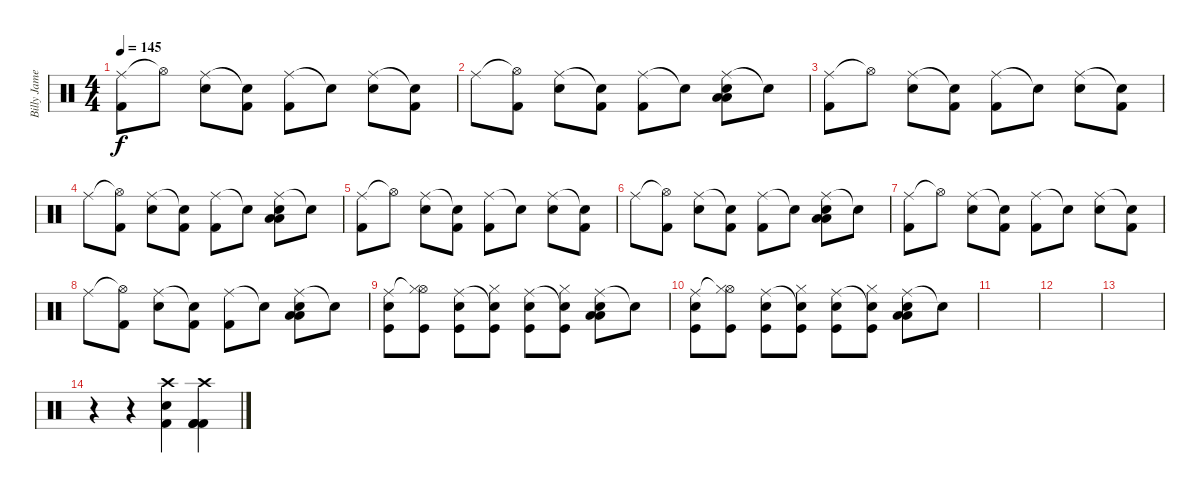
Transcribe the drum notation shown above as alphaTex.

\track ("Billy James (Drums)" "Billy Jame") {instrument percussion}
\staff {score}
\articulation defaults
\ts (4 4)
\tempo 145
\clef neutral
\ks c
("Ride (middle)" "Kick (hit) 2").8{dy f} "Hi-Hat (open)"{t}.8 ("Ride (middle)" "Snare (hit) 2").8 ("Snare (hit)"{t} "Kick (hit) 2").8 ("Ride (middle)" "Kick (hit) 2").8 "Snare (hit)"{t}.8 ("Ride (middle)" "Snare (hit) 2").8 ("Snare (hit)"{t} "Kick (hit) 2").8 |
"Ride (middle)".8 ("Hi-Hat (open)"{t} "Kick (hit) 2").8 ("Ride (middle)" "Snare (hit) 2").8 ("Snare (hit)"{t} "Kick (hit) 2").8 ("Ride (middle)" "Kick (hit) 2").8 "Snare (hit)"{t}.8 ("Ride (middle)" "Low Floor Tom (hit)" "Low Floor Tom (hit)" "Snare (hit) 2").8 "Snare (hit)"{t}.8 |
("Ride (middle)" "Kick (hit) 2").8 "Hi-Hat (open)"{t}.8 ("Ride (middle)" "Snare (hit) 2").8 ("Snare (hit)"{t} "Kick (hit) 2").8 ("Ride (middle)" "Kick (hit) 2").8 "Snare (hit)"{t}.8 ("Ride (middle)" "Snare (hit) 2").8 ("Snare (hit)"{t} "Kick (hit) 2").8 |
"Ride (middle)".8 ("Hi-Hat (open)"{t} "Kick (hit) 2").8 ("Ride (middle)" "Snare (hit) 2").8 ("Snare (hit)"{t} "Kick (hit) 2").8 ("Ride (middle)" "Kick (hit) 2").8 "Snare (hit)"{t}.8 ("Ride (middle)" "Low Floor Tom (hit)" "Low Floor Tom (hit)" "Snare (hit) 2").8 "Snare (hit)"{t}.8 |
("Ride (middle)" "Kick (hit) 2").8 "Hi-Hat (open)"{t}.8 ("Ride (middle)" "Snare (hit) 2").8 ("Snare (hit)"{t} "Kick (hit) 2").8 ("Ride (middle)" "Kick (hit) 2").8 "Snare (hit)"{t}.8 ("Ride (middle)" "Snare (hit) 2").8 ("Snare (hit)"{t} "Kick (hit) 2").8 |
"Ride (middle)".8 ("Hi-Hat (open)"{t} "Kick (hit) 2").8 ("Ride (middle)" "Snare (hit) 2").8 ("Snare (hit)"{t} "Kick (hit) 2").8 ("Ride (middle)" "Kick (hit) 2").8 "Snare (hit)"{t}.8 ("Ride (middle)" "Low Floor Tom (hit)" "Low Floor Tom (hit)" "Snare (hit) 2").8 "Snare (hit)"{t}.8 |
("Ride (middle)" "Kick (hit) 2").8 "Hi-Hat (open)"{t}.8 ("Ride (middle)" "Snare (hit) 2").8 ("Snare (hit)"{t} "Kick (hit) 2").8 ("Ride (middle)" "Kick (hit) 2").8 "Snare (hit)"{t}.8 ("Ride (middle)" "Snare (hit) 2").8 ("Snare (hit)"{t} "Kick (hit) 2").8 |
"Ride (middle)".8 ("Hi-Hat (open)"{t} "Kick (hit) 2").8 ("Ride (middle)" "Snare (hit) 2").8 ("Snare (hit)"{t} "Kick (hit) 2").8 ("Ride (middle)" "Kick (hit) 2").8 "Snare (hit)"{t}.8 ("Ride (middle)" "Low Floor Tom (hit)" "Low Floor Tom (hit)" "Snare (hit) 2").8 "Snare (hit)"{t}.8 |
("Ride (middle)" "Snare (hit) 2" "Kick (hit)").8 ("Hi-Hat (open)"{t} "Kick (hit)" "Hi-Hat (closed)").8 ("Ride (middle)" "Snare (hit) 2" "Kick (hit)").8 ("Snare (hit)"{t} "Kick (hit)" "Hi-Hat (closed)").8 ("Ride (middle)" "Snare (hit) 2" "Kick (hit)").8 ("Snare (hit)"{t} "Kick (hit)" "Hi-Hat (closed)").8 ("Ride (middle)" "Low Floor Tom (hit)" "Low Floor Tom (hit)" "Snare (hit) 2").8 "Snare (hit)"{t}.8 |
("Ride (middle)" "Snare (hit) 2" "Kick (hit)").8 ("Hi-Hat (open)"{t} "Kick (hit)" "Hi-Hat (closed)").8 ("Ride (middle)" "Snare (hit) 2" "Kick (hit)").8 ("Snare (hit)"{t} "Kick (hit)" "Hi-Hat (closed)").8 ("Ride (middle)" "Snare (hit) 2" "Kick (hit)").8 ("Snare (hit)"{t} "Kick (hit)" "Hi-Hat (closed)").8 ("Ride (middle)" "Low Floor Tom (hit)" "Low Floor Tom (hit)" "Snare (hit) 2").8 "Snare (hit)"{t}.8 |
|
|
|
r.4 r.4 ("Snare (hit) 2" "Crash high (hit)" "Kick (hit) 2").4 ("Crash high (hit)" "Kick (hit) 2" "Kick (hit) 2" "Kick (hit) 2").4
